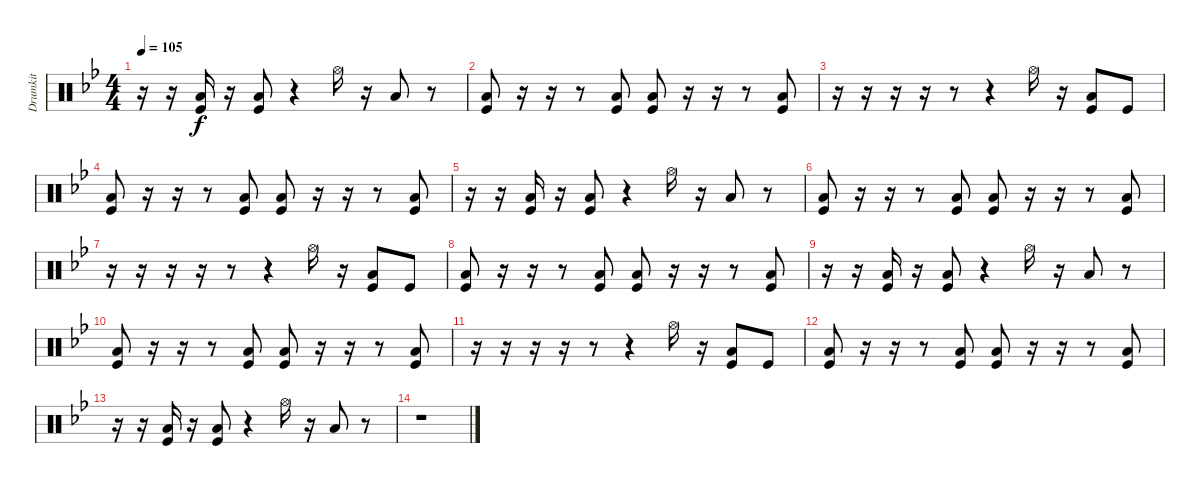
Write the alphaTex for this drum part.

\track ("Drumkit" "Drumkit") {instrument percussion}
\staff {score}
\articulation defaults
\ts (4 4)
\tempo 105
\clef neutral
\ks gminor
r.16{dy f} r.16 ("Kick (hit)" "Low Floor Tom (hit)").16 r.16 ("Kick (hit)" "Low Floor Tom (hit)").8 r.4 "Hi-Hat (open)".16 r.16 "Low Floor Tom (hit)".8 r.8 |
("Kick (hit)" "Low Floor Tom (hit)").8 r.16 r.16 r.8 ("Kick (hit)" "Low Floor Tom (hit)").8 ("Kick (hit)" "Low Floor Tom (hit)").8 r.16 r.16 r.8 ("Kick (hit)" "Low Floor Tom (hit)").8 |
r.16 r.16 r.16 r.16 r.8 r.4 "Hi-Hat (open)".16 r.16 ("Kick (hit)" "Low Floor Tom (hit)").8 "Kick (hit)".8 |
("Kick (hit)" "Low Floor Tom (hit)").8 r.16 r.16 r.8 ("Kick (hit)" "Low Floor Tom (hit)").8 ("Kick (hit)" "Low Floor Tom (hit)").8 r.16 r.16 r.8 ("Kick (hit)" "Low Floor Tom (hit)").8 |
r.16 r.16 ("Kick (hit)" "Low Floor Tom (hit)").16 r.16 ("Kick (hit)" "Low Floor Tom (hit)").8 r.4 "Hi-Hat (open)".16 r.16 "Low Floor Tom (hit)".8 r.8 |
("Kick (hit)" "Low Floor Tom (hit)").8 r.16 r.16 r.8 ("Kick (hit)" "Low Floor Tom (hit)").8 ("Kick (hit)" "Low Floor Tom (hit)").8 r.16 r.16 r.8 ("Kick (hit)" "Low Floor Tom (hit)").8 |
r.16 r.16 r.16 r.16 r.8 r.4 "Hi-Hat (open)".16 r.16 ("Kick (hit)" "Low Floor Tom (hit)").8 "Kick (hit)".8 |
("Kick (hit)" "Low Floor Tom (hit)").8 r.16 r.16 r.8 ("Kick (hit)" "Low Floor Tom (hit)").8 ("Kick (hit)" "Low Floor Tom (hit)").8 r.16 r.16 r.8 ("Kick (hit)" "Low Floor Tom (hit)").8 |
r.16 r.16 ("Kick (hit)" "Low Floor Tom (hit)").16 r.16 ("Kick (hit)" "Low Floor Tom (hit)").8 r.4 "Hi-Hat (open)".16 r.16 "Low Floor Tom (hit)".8 r.8 |
("Kick (hit)" "Low Floor Tom (hit)").8 r.16 r.16 r.8 ("Kick (hit)" "Low Floor Tom (hit)").8 ("Kick (hit)" "Low Floor Tom (hit)").8 r.16 r.16 r.8 ("Kick (hit)" "Low Floor Tom (hit)").8 |
r.16 r.16 r.16 r.16 r.8 r.4 "Hi-Hat (open)".16 r.16 ("Kick (hit)" "Low Floor Tom (hit)").8 "Kick (hit)".8 |
("Kick (hit)" "Low Floor Tom (hit)").8 r.16 r.16 r.8 ("Kick (hit)" "Low Floor Tom (hit)").8 ("Kick (hit)" "Low Floor Tom (hit)").8 r.16 r.16 r.8 ("Kick (hit)" "Low Floor Tom (hit)").8 |
r.16 r.16 ("Kick (hit)" "Low Floor Tom (hit)").16 r.16 ("Kick (hit)" "Low Floor Tom (hit)").8 r.4 "Hi-Hat (open)".16 r.16 "Low Floor Tom (hit)".8 r.8 |
r.1
